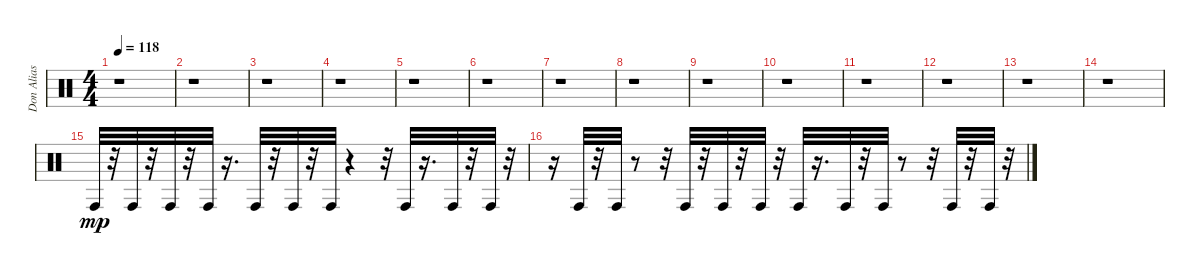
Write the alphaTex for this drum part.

\track ("Don Alias" "Don Alias") {instrument percussion}
\staff {score}
\articulation defaults
\ts (4 4)
\tempo 118
\clef neutral
\ks c
r.1{dy mp} |
r.1 |
r.1 |
r.1 |
r.1 |
r.1 |
r.1 |
r.1 |
r.1 |
r.1 |
r.1 |
r.1 |
r.1 |
r.1 |
"Conga high (hit)".32 r.32 "Conga high (hit)".32 r.32 "Conga high (hit)".32 r.32 "Conga high (hit)".32 r.16{d} "Conga high (hit)".32 r.32 "Conga high (hit)".32 r.32 "Conga high (hit)".32 r.4 r.32 "Conga high (hit)".32 r.16{d} "Conga high (hit)".32 r.32 "Conga high (hit)".32 r.32 |
r.16 "Conga high (hit)".32 r.32 "Conga high (hit)".32 r.8 r.32 "Conga high (hit)".32 r.32 "Conga high (hit)".32 r.32 "Conga high (hit)".32 r.32 "Conga high (hit)".32 r.16{d} "Conga high (hit)".32 r.32 "Conga high (hit)".32 r.8 r.32 "Conga high (hit)".32 r.32 "Conga high (hit)".32 r.32
